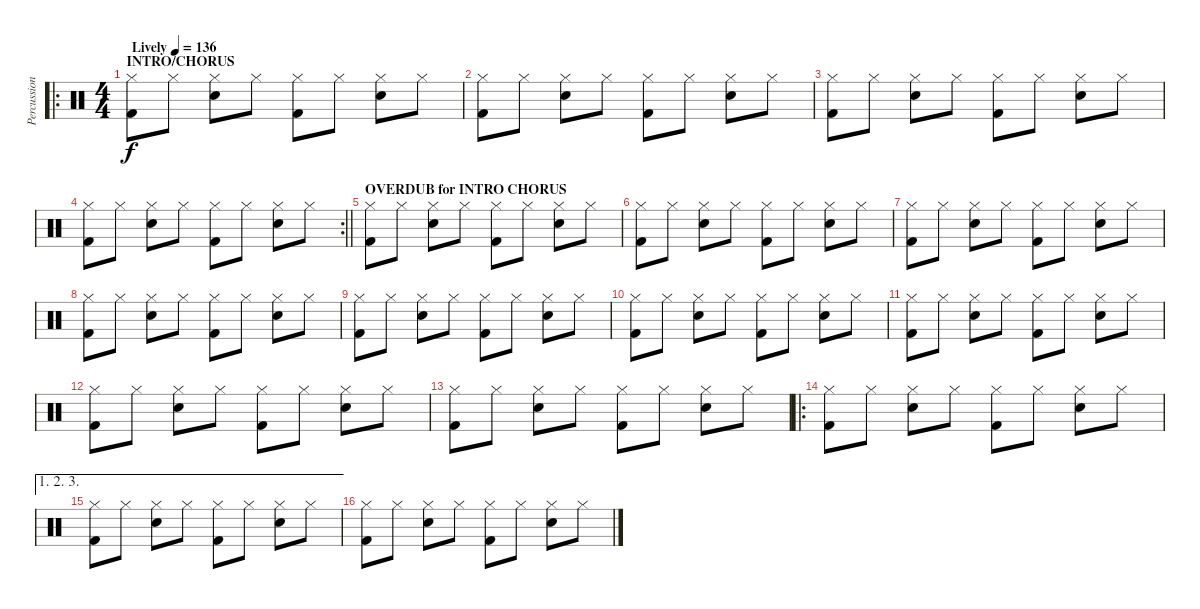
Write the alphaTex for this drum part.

\track ("Percussion" "Percussion") {instrument percussion}
\staff {score}
\articulation defaults
\ro
\ts (4 4)
\section ("" "INTRO/CHORUS")
\tempo (136 "Lively")
\clef neutral
\ks c
("Hi-Hat (closed)" "Kick (hit) 2").8{dy f} "Hi-Hat (closed)".8 ("Hi-Hat (closed)" "Snare (hit) 2").8 "Hi-Hat (closed)".8 ("Hi-Hat (closed)" "Kick (hit) 2").8 "Hi-Hat (closed)".8 ("Hi-Hat (closed)" "Snare (hit) 2").8 "Hi-Hat (closed)".8 |
("Hi-Hat (closed)" "Kick (hit) 2").8 "Hi-Hat (closed)".8 ("Hi-Hat (closed)" "Snare (hit) 2").8 "Hi-Hat (closed)".8 ("Hi-Hat (closed)" "Kick (hit) 2").8 "Hi-Hat (closed)".8 ("Hi-Hat (closed)" "Snare (hit) 2").8 "Hi-Hat (closed)".8 |
("Hi-Hat (closed)" "Kick (hit) 2").8 "Hi-Hat (closed)".8 ("Hi-Hat (closed)" "Snare (hit) 2").8 "Hi-Hat (closed)".8 ("Hi-Hat (closed)" "Kick (hit) 2").8 "Hi-Hat (closed)".8 ("Hi-Hat (closed)" "Snare (hit) 2").8 "Hi-Hat (closed)".8 |
\rc 2
\barLineRight lightlight
("Hi-Hat (closed)" "Kick (hit) 2").8 "Hi-Hat (closed)".8 ("Hi-Hat (closed)" "Snare (hit) 2").8 "Hi-Hat (closed)".8 ("Hi-Hat (closed)" "Kick (hit) 2").8 "Hi-Hat (closed)".8 ("Hi-Hat (closed)" "Snare (hit) 2").8 "Hi-Hat (closed)".8 |
\section ("" "OVERDUB for INTRO CHORUS")
("Hi-Hat (closed)" "Kick (hit) 2").8 "Hi-Hat (closed)".8 ("Hi-Hat (closed)" "Snare (hit) 2").8 "Hi-Hat (closed)".8 ("Hi-Hat (closed)" "Kick (hit) 2").8 "Hi-Hat (closed)".8 ("Hi-Hat (closed)" "Snare (hit) 2").8 "Hi-Hat (closed)".8 |
("Hi-Hat (closed)" "Kick (hit) 2").8 "Hi-Hat (closed)".8 ("Hi-Hat (closed)" "Snare (hit) 2").8 "Hi-Hat (closed)".8 ("Hi-Hat (closed)" "Kick (hit) 2").8 "Hi-Hat (closed)".8 ("Hi-Hat (closed)" "Snare (hit) 2").8 "Hi-Hat (closed)".8 |
("Hi-Hat (closed)" "Kick (hit) 2").8 "Hi-Hat (closed)".8 ("Hi-Hat (closed)" "Snare (hit) 2").8 "Hi-Hat (closed)".8 ("Hi-Hat (closed)" "Kick (hit) 2").8 "Hi-Hat (closed)".8 ("Hi-Hat (closed)" "Snare (hit) 2").8 "Hi-Hat (closed)".8 |
("Hi-Hat (closed)" "Kick (hit) 2").8 "Hi-Hat (closed)".8 ("Hi-Hat (closed)" "Snare (hit) 2").8 "Hi-Hat (closed)".8 ("Hi-Hat (closed)" "Kick (hit) 2").8 "Hi-Hat (closed)".8 ("Hi-Hat (closed)" "Snare (hit) 2").8 "Hi-Hat (closed)".8 |
("Hi-Hat (closed)" "Kick (hit) 2").8 "Hi-Hat (closed)".8 ("Hi-Hat (closed)" "Snare (hit) 2").8 "Hi-Hat (closed)".8 ("Hi-Hat (closed)" "Kick (hit) 2").8 "Hi-Hat (closed)".8 ("Hi-Hat (closed)" "Snare (hit) 2").8 "Hi-Hat (closed)".8 |
("Hi-Hat (closed)" "Kick (hit) 2").8 "Hi-Hat (closed)".8 ("Hi-Hat (closed)" "Snare (hit) 2").8 "Hi-Hat (closed)".8 ("Hi-Hat (closed)" "Kick (hit) 2").8 "Hi-Hat (closed)".8 ("Hi-Hat (closed)" "Snare (hit) 2").8 "Hi-Hat (closed)".8 |
("Hi-Hat (closed)" "Kick (hit) 2").8 "Hi-Hat (closed)".8 ("Hi-Hat (closed)" "Snare (hit) 2").8 "Hi-Hat (closed)".8 ("Hi-Hat (closed)" "Kick (hit) 2").8 "Hi-Hat (closed)".8 ("Hi-Hat (closed)" "Snare (hit) 2").8 "Hi-Hat (closed)".8 |
("Hi-Hat (closed)" "Kick (hit) 2").8 "Hi-Hat (closed)".8 ("Hi-Hat (closed)" "Snare (hit) 2").8 "Hi-Hat (closed)".8 ("Hi-Hat (closed)" "Kick (hit) 2").8 "Hi-Hat (closed)".8 ("Hi-Hat (closed)" "Snare (hit) 2").8 "Hi-Hat (closed)".8 |
("Hi-Hat (closed)" "Kick (hit) 2").8 "Hi-Hat (closed)".8 ("Hi-Hat (closed)" "Snare (hit) 2").8 "Hi-Hat (closed)".8 ("Hi-Hat (closed)" "Kick (hit) 2").8 "Hi-Hat (closed)".8 ("Hi-Hat (closed)" "Snare (hit) 2").8 "Hi-Hat (closed)".8 |
\ro
("Hi-Hat (closed)" "Kick (hit) 2").8 "Hi-Hat (closed)".8 ("Hi-Hat (closed)" "Snare (hit) 2").8 "Hi-Hat (closed)".8 ("Hi-Hat (closed)" "Kick (hit) 2").8 "Hi-Hat (closed)".8 ("Hi-Hat (closed)" "Snare (hit) 2").8 "Hi-Hat (closed)".8 |
\ae (1 2 3)
("Hi-Hat (closed)" "Kick (hit) 2").8 "Hi-Hat (closed)".8 ("Hi-Hat (closed)" "Snare (hit) 2").8 "Hi-Hat (closed)".8 ("Hi-Hat (closed)" "Kick (hit) 2").8 "Hi-Hat (closed)".8 ("Hi-Hat (closed)" "Snare (hit) 2").8 "Hi-Hat (closed)".8 |
("Hi-Hat (closed)" "Kick (hit) 2").8 "Hi-Hat (closed)".8 ("Hi-Hat (closed)" "Snare (hit) 2").8 "Hi-Hat (closed)".8 ("Hi-Hat (closed)" "Kick (hit) 2").8 "Hi-Hat (closed)".8 ("Hi-Hat (closed)" "Snare (hit) 2").8 "Hi-Hat (closed)".8
